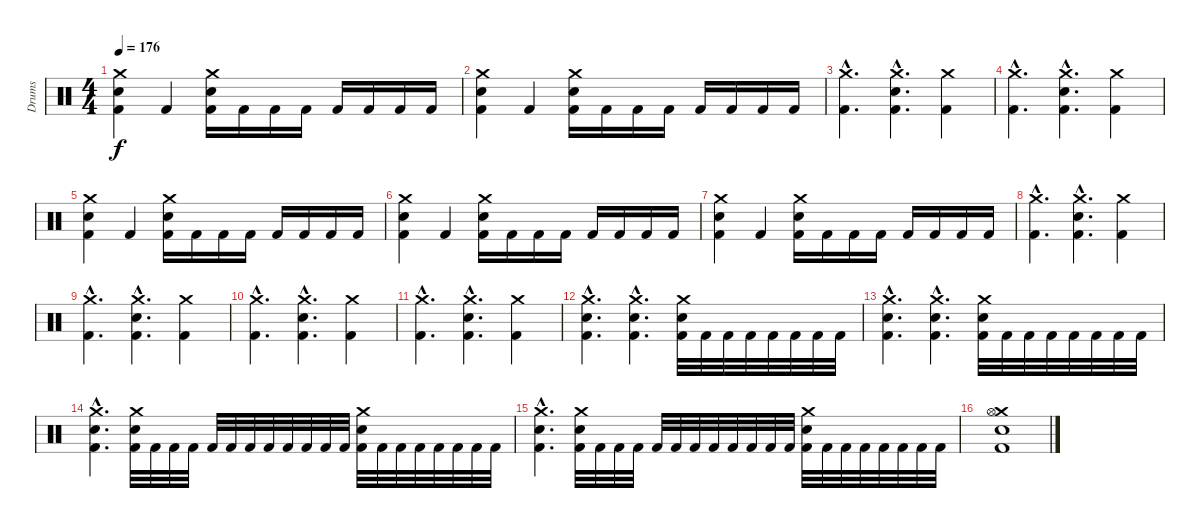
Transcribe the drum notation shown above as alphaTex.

\track ("Drums" "Drums") {instrument percussion}
\staff {score}
\articulation defaults
\ts (4 4)
\tempo 176
\clef neutral
\ks c
("Crash medium (hit)" "Snare (hit) 2" "Kick (hit) 2").4{dy f} "Kick (hit) 2".4 ("Crash medium (hit)" "Snare (hit) 2" "Kick (hit) 2").16 "Kick (hit) 2".16 "Kick (hit) 2".16 "Kick (hit) 2".16 "Kick (hit) 2".16 "Kick (hit) 2".16 "Kick (hit) 2".16 "Kick (hit) 2".16 |
("Crash medium (hit)" "Snare (hit) 2" "Kick (hit) 2").4 "Kick (hit) 2".4 ("Crash medium (hit)" "Snare (hit) 2" "Kick (hit) 2").16 "Kick (hit) 2".16 "Kick (hit) 2".16 "Kick (hit) 2".16 "Kick (hit) 2".16 "Kick (hit) 2".16 "Kick (hit) 2".16 "Kick (hit) 2".16 |
("Crash medium (hit)"{hac} "Kick (hit) 2"{hac}).4{d} ("Crash medium (hit)"{hac} "Snare (hit) 2"{hac} "Kick (hit) 2"{hac}).4{d} ("Crash medium (hit)" "Kick (hit) 2").4 |
("Crash medium (hit)"{hac} "Kick (hit) 2"{hac}).4{d} ("Crash medium (hit)"{hac} "Snare (hit) 2"{hac} "Kick (hit) 2"{hac}).4{d} ("Crash medium (hit)" "Kick (hit) 2").4 |
("Crash medium (hit)" "Snare (hit) 2" "Kick (hit) 2").4 "Kick (hit) 2".4 ("Crash medium (hit)" "Snare (hit) 2" "Kick (hit) 2").16 "Kick (hit) 2".16 "Kick (hit) 2".16 "Kick (hit) 2".16 "Kick (hit) 2".16 "Kick (hit) 2".16 "Kick (hit) 2".16 "Kick (hit) 2".16 |
("Crash medium (hit)" "Snare (hit) 2" "Kick (hit) 2").4 "Kick (hit) 2".4 ("Crash medium (hit)" "Snare (hit) 2" "Kick (hit) 2").16 "Kick (hit) 2".16 "Kick (hit) 2".16 "Kick (hit) 2".16 "Kick (hit) 2".16 "Kick (hit) 2".16 "Kick (hit) 2".16 "Kick (hit) 2".16 |
("Crash medium (hit)" "Snare (hit) 2" "Kick (hit) 2").4 "Kick (hit) 2".4 ("Crash medium (hit)" "Snare (hit) 2" "Kick (hit) 2").16 "Kick (hit) 2".16 "Kick (hit) 2".16 "Kick (hit) 2".16 "Kick (hit) 2".16 "Kick (hit) 2".16 "Kick (hit) 2".16 "Kick (hit) 2".16 |
("Crash medium (hit)"{hac} "Kick (hit) 2"{hac}).4{d} ("Crash medium (hit)"{hac} "Snare (hit) 2"{hac} "Kick (hit) 2"{hac}).4{d} ("Crash medium (hit)" "Kick (hit) 2").4 |
("Crash medium (hit)"{hac} "Kick (hit) 2"{hac}).4{d} ("Crash medium (hit)"{hac} "Snare (hit) 2"{hac} "Kick (hit) 2"{hac}).4{d} ("Crash medium (hit)" "Kick (hit) 2").4 |
("Crash medium (hit)"{hac} "Kick (hit) 2"{hac}).4{d} ("Crash medium (hit)"{hac} "Snare (hit) 2"{hac} "Kick (hit) 2"{hac}).4{d} ("Crash medium (hit)" "Kick (hit) 2").4 |
("Crash medium (hit)"{hac} "Kick (hit) 2"{hac}).4{d} ("Crash medium (hit)"{hac} "Snare (hit) 2"{hac} "Kick (hit) 2"{hac}).4{d} ("Crash medium (hit)" "Kick (hit) 2").4 |
("Crash medium (hit)"{hac} "Snare (hit) 2"{hac} "Kick (hit) 2"{hac}).4{d} ("Crash medium (hit)"{hac} "Snare (hit) 2"{hac} "Kick (hit) 2"{hac}).4{d} ("Crash medium (hit)" "Snare (hit) 2" "Kick (hit) 2").32 "Kick (hit) 2".32 "Kick (hit) 2".32 "Kick (hit) 2".32 "Kick (hit) 2".32 "Kick (hit) 2".32 "Kick (hit) 2".32 "Kick (hit) 2".32 |
("Crash medium (hit)"{hac} "Snare (hit) 2"{hac} "Kick (hit) 2"{hac}).4{d} ("Crash medium (hit)"{hac} "Snare (hit) 2"{hac} "Kick (hit) 2"{hac}).4{d} ("Crash medium (hit)" "Snare (hit) 2" "Kick (hit) 2").32 "Kick (hit) 2".32 "Kick (hit) 2".32 "Kick (hit) 2".32 "Kick (hit) 2".32 "Kick (hit) 2".32 "Kick (hit) 2".32 "Kick (hit) 2".32 |
("Crash medium (hit)"{hac} "Snare (hit) 2"{hac} "Kick (hit) 2"{hac}).4{d} ("Crash medium (hit)" "Snare (hit) 2" "Kick (hit) 2").32 "Kick (hit) 2".32 "Kick (hit) 2".32 "Kick (hit) 2".32 "Kick (hit) 2".32 "Kick (hit) 2".32 "Kick (hit) 2".32 "Kick (hit) 2".32 "Kick (hit) 2".32 "Kick (hit) 2".32 "Kick (hit) 2".32 "Kick (hit) 2".32 ("Crash medium (hit)" "Snare (hit) 2" "Kick (hit) 2").32 "Kick (hit) 2".32 "Kick (hit) 2".32 "Kick (hit) 2".32 "Kick (hit) 2".32 "Kick (hit) 2".32 "Kick (hit) 2".32 "Kick (hit) 2".32 |
("Crash medium (hit)"{hac} "Snare (hit) 2"{hac} "Kick (hit) 2"{hac}).4{d} ("Crash medium (hit)" "Snare (hit) 2" "Kick (hit) 2").32 "Kick (hit) 2".32 "Kick (hit) 2".32 "Kick (hit) 2".32 "Kick (hit) 2".32 "Kick (hit) 2".32 "Kick (hit) 2".32 "Kick (hit) 2".32 "Kick (hit) 2".32 "Kick (hit) 2".32 "Kick (hit) 2".32 "Kick (hit) 2".32 ("Crash medium (hit)" "Snare (hit) 2" "Kick (hit) 2").32 "Kick (hit) 2".32 "Kick (hit) 2".32 "Kick (hit) 2".32 "Kick (hit) 2".32 "Kick (hit) 2".32 "Kick (hit) 2".32 "Kick (hit) 2".32 |
("Crash medium (hit)" "Hi-Hat (open)" "Snare (hit) 2" "Kick (hit) 2").1
